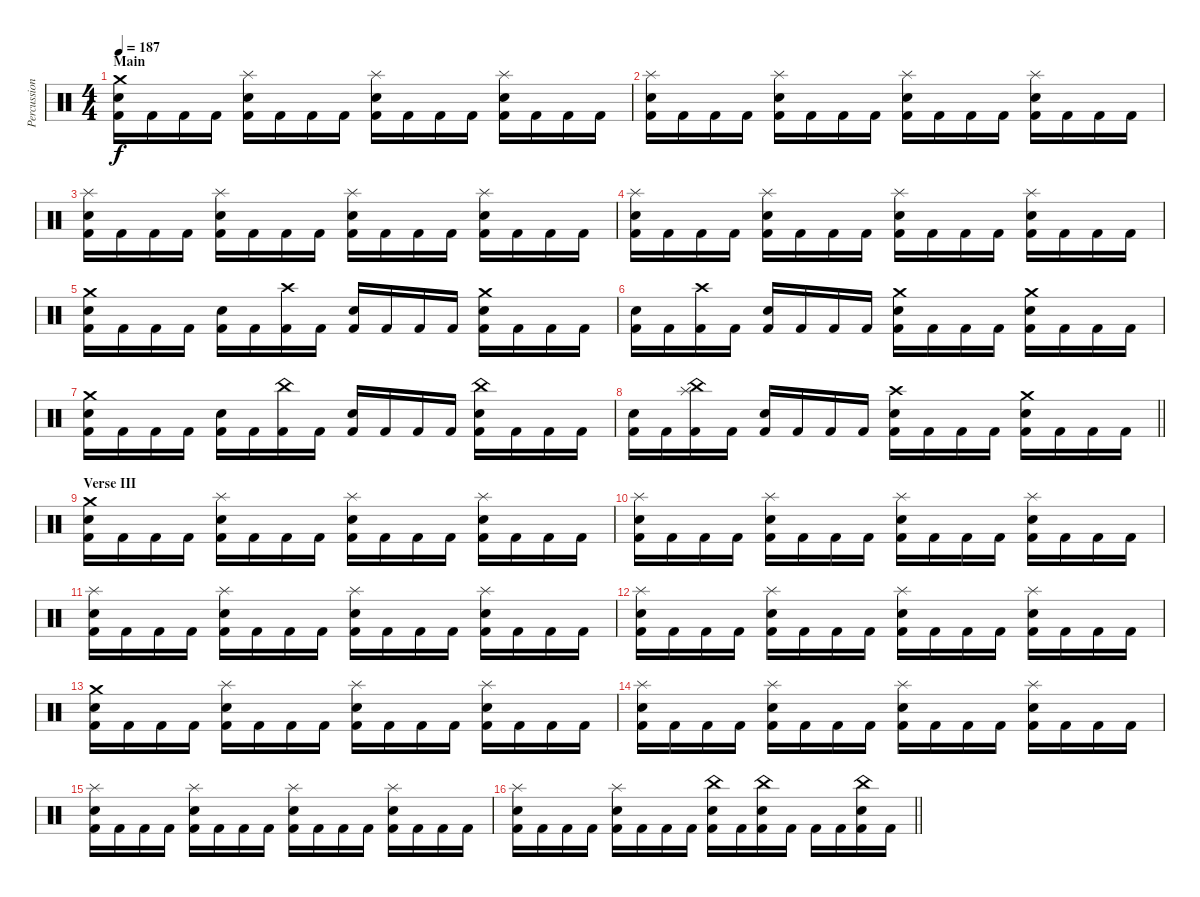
\track ("Percussion" "Percussion") {instrument percussion}
\staff {score}
\articulation defaults
\ts (4 4)
\section ("" "Main")
\tempo 187
\clef neutral
\ks c
("Kick (hit) 2" "Snare (hit) 2" "Crash medium (hit)").16{dy f} "Kick (hit) 2".16 "Kick (hit) 2".16 "Kick (hit) 2".16 ("Kick (hit) 2" "Snare (hit) 2" "Splash (hit)").16 "Kick (hit) 2".16 "Kick (hit) 2".16 "Kick (hit) 2".16 ("Kick (hit) 2" "Snare (hit) 2" "Splash (hit)").16 "Kick (hit) 2".16 "Kick (hit) 2".16 "Kick (hit) 2".16 ("Kick (hit) 2" "Snare (hit) 2" "Splash (hit)").16 "Kick (hit) 2".16 "Kick (hit) 2".16 "Kick (hit) 2".16 |
("Kick (hit) 2" "Snare (hit) 2" "Splash (hit)").16 "Kick (hit) 2".16 "Kick (hit) 2".16 "Kick (hit) 2".16 ("Kick (hit) 2" "Snare (hit) 2" "Splash (hit)").16 "Kick (hit) 2".16 "Kick (hit) 2".16 "Kick (hit) 2".16 ("Kick (hit) 2" "Snare (hit) 2" "Splash (hit)").16 "Kick (hit) 2".16 "Kick (hit) 2".16 "Kick (hit) 2".16 ("Kick (hit) 2" "Snare (hit) 2" "Splash (hit)").16 "Kick (hit) 2".16 "Kick (hit) 2".16 "Kick (hit) 2".16 |
("Kick (hit) 2" "Snare (hit) 2" "Splash (hit)").16 "Kick (hit) 2".16 "Kick (hit) 2".16 "Kick (hit) 2".16 ("Kick (hit) 2" "Snare (hit) 2" "Splash (hit)").16 "Kick (hit) 2".16 "Kick (hit) 2".16 "Kick (hit) 2".16 ("Kick (hit) 2" "Snare (hit) 2" "Splash (hit)").16 "Kick (hit) 2".16 "Kick (hit) 2".16 "Kick (hit) 2".16 ("Kick (hit) 2" "Snare (hit) 2" "Splash (hit)").16 "Kick (hit) 2".16 "Kick (hit) 2".16 "Kick (hit) 2".16 |
("Kick (hit) 2" "Snare (hit) 2" "Splash (hit)").16 "Kick (hit) 2".16 "Kick (hit) 2".16 "Kick (hit) 2".16 ("Kick (hit) 2" "Snare (hit) 2" "Splash (hit)").16 "Kick (hit) 2".16 "Kick (hit) 2".16 "Kick (hit) 2".16 ("Kick (hit) 2" "Snare (hit) 2" "Splash (hit)").16 "Kick (hit) 2".16 "Kick (hit) 2".16 "Kick (hit) 2".16 ("Kick (hit) 2" "Snare (hit) 2" "Splash (hit)").16 "Kick (hit) 2".16 "Kick (hit) 2".16 "Kick (hit) 2".16 |
("Kick (hit) 2" "Snare (hit) 2" "Crash medium (hit)").16 "Kick (hit) 2".16 "Kick (hit) 2".16 "Kick (hit) 2".16 ("Kick (hit) 2" "Snare (hit) 2").16 "Kick (hit) 2".16 ("Kick (hit) 2" "Crash high (hit)").16 "Kick (hit) 2".16 ("Kick (hit) 2" "Snare (hit) 2").16 "Kick (hit) 2".16 "Kick (hit) 2".16 "Kick (hit) 2".16 ("Kick (hit) 2" "Snare (hit) 2" "Crash medium (hit)").16 "Kick (hit) 2".16 "Kick (hit) 2".16 "Kick (hit) 2".16 |
("Kick (hit) 2" "Snare (hit) 2").16 "Kick (hit) 2".16 ("Kick (hit) 2" "Crash high (hit)").16 "Kick (hit) 2".16 ("Kick (hit) 2" "Snare (hit) 2").16 "Kick (hit) 2".16 "Kick (hit) 2".16 "Kick (hit) 2".16 ("Kick (hit) 2" "Snare (hit) 2" "Crash medium (hit)").16 "Kick (hit) 2".16 "Kick (hit) 2".16 "Kick (hit) 2".16 ("Kick (hit) 2" "Snare (hit) 2" "Crash medium (hit)").16 "Kick (hit) 2".16 "Kick (hit) 2".16 "Kick (hit) 2".16 |
("Kick (hit) 2" "Snare (hit) 2" "Crash medium (hit)").16 "Kick (hit) 2".16 "Kick (hit) 2".16 "Kick (hit) 2".16 ("Kick (hit) 2" "Snare (hit) 2").16 "Kick (hit) 2".16 ("Kick (hit) 2" "China (hit)").16 "Kick (hit) 2".16 ("Kick (hit) 2" "Snare (hit) 2").16 "Kick (hit) 2".16 "Kick (hit) 2".16 "Kick (hit) 2".16 ("Kick (hit) 2" "Snare (hit) 2" "China (hit)").16 "Kick (hit) 2".16 "Kick (hit) 2".16 "Kick (hit) 2".16 |
\barLineRight lightlight
("Kick (hit) 2" "Snare (hit) 2").16 "Kick (hit) 2".16 ("Kick (hit) 2" "China (hit)" "Splash (hit)").16 "Kick (hit) 2".16 ("Kick (hit) 2" "Snare (hit) 2").16 "Kick (hit) 2".16 "Kick (hit) 2".16 "Kick (hit) 2".16 ("Kick (hit) 2" "Snare (hit) 2" "Crash high (hit)").16 "Kick (hit) 2".16 "Kick (hit) 2".16 "Kick (hit) 2".16 ("Kick (hit) 2" "Snare (hit) 2" "Crash medium (hit)").16 "Kick (hit) 2".16 "Kick (hit) 2".16 "Kick (hit) 2".16 |
\section ("" "Verse III")
("Kick (hit) 2" "Snare (hit) 2" "Crash medium (hit)").16 "Kick (hit) 2".16 "Kick (hit) 2".16 "Kick (hit) 2".16 ("Kick (hit) 2" "Snare (hit) 2" "Splash (hit)").16 "Kick (hit) 2".16 "Kick (hit) 2".16 "Kick (hit) 2".16 ("Kick (hit) 2" "Snare (hit) 2" "Splash (hit)").16 "Kick (hit) 2".16 "Kick (hit) 2".16 "Kick (hit) 2".16 ("Kick (hit) 2" "Snare (hit) 2" "Splash (hit)").16 "Kick (hit) 2".16 "Kick (hit) 2".16 "Kick (hit) 2".16 |
("Kick (hit) 2" "Snare (hit) 2" "Splash (hit)").16 "Kick (hit) 2".16 "Kick (hit) 2".16 "Kick (hit) 2".16 ("Kick (hit) 2" "Snare (hit) 2" "Splash (hit)").16 "Kick (hit) 2".16 "Kick (hit) 2".16 "Kick (hit) 2".16 ("Kick (hit) 2" "Snare (hit) 2" "Splash (hit)").16 "Kick (hit) 2".16 "Kick (hit) 2".16 "Kick (hit) 2".16 ("Kick (hit) 2" "Snare (hit) 2" "Splash (hit)").16 "Kick (hit) 2".16 "Kick (hit) 2".16 "Kick (hit) 2".16 |
("Kick (hit) 2" "Snare (hit) 2" "Splash (hit)").16 "Kick (hit) 2".16 "Kick (hit) 2".16 "Kick (hit) 2".16 ("Kick (hit) 2" "Snare (hit) 2" "Splash (hit)").16 "Kick (hit) 2".16 "Kick (hit) 2".16 "Kick (hit) 2".16 ("Kick (hit) 2" "Snare (hit) 2" "Splash (hit)").16 "Kick (hit) 2".16 "Kick (hit) 2".16 "Kick (hit) 2".16 ("Kick (hit) 2" "Snare (hit) 2" "Splash (hit)").16 "Kick (hit) 2".16 "Kick (hit) 2".16 "Kick (hit) 2".16 |
("Kick (hit) 2" "Snare (hit) 2" "Splash (hit)").16 "Kick (hit) 2".16 "Kick (hit) 2".16 "Kick (hit) 2".16 ("Kick (hit) 2" "Snare (hit) 2" "Splash (hit)").16 "Kick (hit) 2".16 "Kick (hit) 2".16 "Kick (hit) 2".16 ("Kick (hit) 2" "Snare (hit) 2" "Splash (hit)").16 "Kick (hit) 2".16 "Kick (hit) 2".16 "Kick (hit) 2".16 ("Kick (hit) 2" "Snare (hit) 2" "Splash (hit)").16 "Kick (hit) 2".16 "Kick (hit) 2".16 "Kick (hit) 2".16 |
("Kick (hit) 2" "Snare (hit) 2" "Crash medium (hit)").16 "Kick (hit) 2".16 "Kick (hit) 2".16 "Kick (hit) 2".16 ("Kick (hit) 2" "Snare (hit) 2" "Splash (hit)").16 "Kick (hit) 2".16 "Kick (hit) 2".16 "Kick (hit) 2".16 ("Kick (hit) 2" "Snare (hit) 2" "Splash (hit)").16 "Kick (hit) 2".16 "Kick (hit) 2".16 "Kick (hit) 2".16 ("Kick (hit) 2" "Snare (hit) 2" "Splash (hit)").16 "Kick (hit) 2".16 "Kick (hit) 2".16 "Kick (hit) 2".16 |
("Kick (hit) 2" "Snare (hit) 2" "Splash (hit)").16 "Kick (hit) 2".16 "Kick (hit) 2".16 "Kick (hit) 2".16 ("Kick (hit) 2" "Snare (hit) 2" "Splash (hit)").16 "Kick (hit) 2".16 "Kick (hit) 2".16 "Kick (hit) 2".16 ("Kick (hit) 2" "Snare (hit) 2" "Splash (hit)").16 "Kick (hit) 2".16 "Kick (hit) 2".16 "Kick (hit) 2".16 ("Kick (hit) 2" "Snare (hit) 2" "Splash (hit)").16 "Kick (hit) 2".16 "Kick (hit) 2".16 "Kick (hit) 2".16 |
("Kick (hit) 2" "Snare (hit) 2" "Splash (hit)").16 "Kick (hit) 2".16 "Kick (hit) 2".16 "Kick (hit) 2".16 ("Kick (hit) 2" "Snare (hit) 2" "Splash (hit)").16 "Kick (hit) 2".16 "Kick (hit) 2".16 "Kick (hit) 2".16 ("Kick (hit) 2" "Snare (hit) 2" "Splash (hit)").16 "Kick (hit) 2".16 "Kick (hit) 2".16 "Kick (hit) 2".16 ("Kick (hit) 2" "Snare (hit) 2" "Splash (hit)").16 "Kick (hit) 2".16 "Kick (hit) 2".16 "Kick (hit) 2".16 |
\barLineRight lightlight
("Kick (hit) 2" "Snare (hit) 2" "Splash (hit)").16 "Kick (hit) 2".16 "Kick (hit) 2".16 "Kick (hit) 2".16 ("Kick (hit) 2" "Snare (hit) 2" "Splash (hit)").16 "Kick (hit) 2".16 "Kick (hit) 2".16 "Kick (hit) 2".16 ("Kick (hit) 2" "Snare (hit) 2" "China (hit)").16 "Kick (hit) 2".16 ("Kick (hit) 2" "Snare (hit) 2" "China (hit)").16 "Kick (hit) 2".16 "Kick (hit) 2".16 "Kick (hit) 2".16 ("Kick (hit) 2" "Snare (hit) 2" "China (hit)").16 "Kick (hit) 2".16
